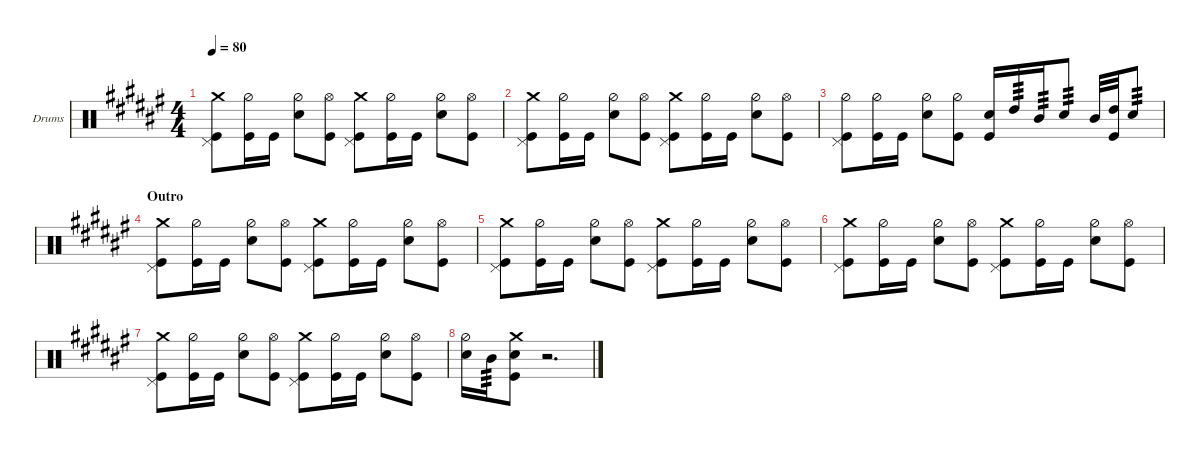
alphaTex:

\defaultSystemsLayout 4
\hideDynamics
\bracketExtendMode groupsimilarinstruments
\multiBarRest
\firstSystemTrackNameOrientation horizontal
\otherSystemsTrackNameOrientation horizontal
\track ("Drumkit" "Drums") {multiBarRest instrument percussion}
\staff {score}
\articulation defaults
\ts (4 4)
\tempo 80
\clef neutral
\ks f#
("Kick (hit)" "Pedal Hi-Hat (hit)" "Crash medium (hit)").8{dy mf} ("Kick (hit)" "Hi-Hat (half)").16 "Kick (hit)".16 ("Snare (hit) 2" "Hi-Hat (half)").8 ("Kick (hit)" "Hi-Hat (open)").8 ("Kick (hit)" "Pedal Hi-Hat (hit)" "Crash medium (hit)").8 ("Kick (hit)" "Hi-Hat (half)").16 "Kick (hit)".16 ("Snare (hit) 2" "Hi-Hat (half)").8 ("Kick (hit)" "Hi-Hat (open)").8 |
("Kick (hit)" "Pedal Hi-Hat (hit)" "Crash medium (hit)").8 ("Kick (hit)" "Hi-Hat (half)").16 "Kick (hit)".16 ("Snare (hit) 2" "Hi-Hat (half)").8 ("Kick (hit)" "Hi-Hat (open)").8 ("Kick (hit)" "Pedal Hi-Hat (hit)" "Crash medium (hit)").8 ("Kick (hit)" "Hi-Hat (half)").16 "Kick (hit)".16 ("Snare (hit) 2" "Hi-Hat (half)").8 ("Kick (hit)" "Hi-Hat (open)").8 |
("Kick (hit)" "Pedal Hi-Hat (hit)" "Hi-Hat (half)").8 ("Kick (hit)" "Hi-Hat (half)").16 "Kick (hit)".16 ("Snare (hit) 2" "Hi-Hat (half)").8 ("Kick (hit)" "Hi-Hat (half)").8 ("Snare (hit) 2" "Kick (hit)").16 "High Tom (hit)".16{tp 3} "Mid Tom (hit)".16{tp 3} "Snare (hit) 2".8{tp 3} "Mid Tom (hit)".32 ("Kick (hit)" "High Tom (hit)").32 "Snare (hit) 2".8{tp 3} |
\section ("" "Outro")
("Kick (hit)" "Pedal Hi-Hat (hit)" "Crash medium (hit)").8 ("Kick (hit)" "Hi-Hat (half)").16 "Kick (hit)".16 ("Snare (hit) 2" "Hi-Hat (half)").8 ("Kick (hit)" "Hi-Hat (open)").8 ("Kick (hit)" "Pedal Hi-Hat (hit)" "Crash medium (hit)").8 ("Kick (hit)" "Hi-Hat (half)").16 "Kick (hit)".16 ("Snare (hit) 2" "Hi-Hat (half)").8 ("Kick (hit)" "Hi-Hat (open)").8 |
("Kick (hit)" "Pedal Hi-Hat (hit)" "Crash medium (hit)").8 ("Kick (hit)" "Hi-Hat (half)").16 "Kick (hit)".16 ("Snare (hit) 2" "Hi-Hat (half)").8 ("Kick (hit)" "Hi-Hat (open)").8 ("Kick (hit)" "Pedal Hi-Hat (hit)" "Crash medium (hit)").8 ("Kick (hit)" "Hi-Hat (half)").16 "Kick (hit)".16 ("Snare (hit) 2" "Hi-Hat (half)").8 ("Kick (hit)" "Hi-Hat (open)").8 |
("Kick (hit)" "Pedal Hi-Hat (hit)" "Crash medium (hit)").8 ("Kick (hit)" "Hi-Hat (half)").16 "Kick (hit)".16 ("Snare (hit) 2" "Hi-Hat (half)").8 ("Kick (hit)" "Hi-Hat (open)").8 ("Kick (hit)" "Pedal Hi-Hat (hit)" "Crash medium (hit)").8 ("Kick (hit)" "Hi-Hat (half)").16 "Kick (hit)".16 ("Snare (hit) 2" "Hi-Hat (half)").8 ("Kick (hit)" "Hi-Hat (open)").8 |
("Kick (hit)" "Pedal Hi-Hat (hit)" "Crash medium (hit)").8 ("Kick (hit)" "Hi-Hat (half)").16 "Kick (hit)".16 ("Snare (hit) 2" "Hi-Hat (half)").8 ("Kick (hit)" "Hi-Hat (open)").8 ("Kick (hit)" "Pedal Hi-Hat (hit)" "Crash medium (hit)").8 ("Kick (hit)" "Hi-Hat (half)").16 "Kick (hit)".16 ("Snare (hit) 2" "Hi-Hat (half)").8 ("Kick (hit)" "Hi-Hat (open)").8 |
("Snare (hit) 2" "Hi-Hat (half)").16 "Mid Tom (hit)".16{tp 3} ("Snare (hit) 2" "Crash medium (hit)" "Kick (hit)").8 r.2{d}
